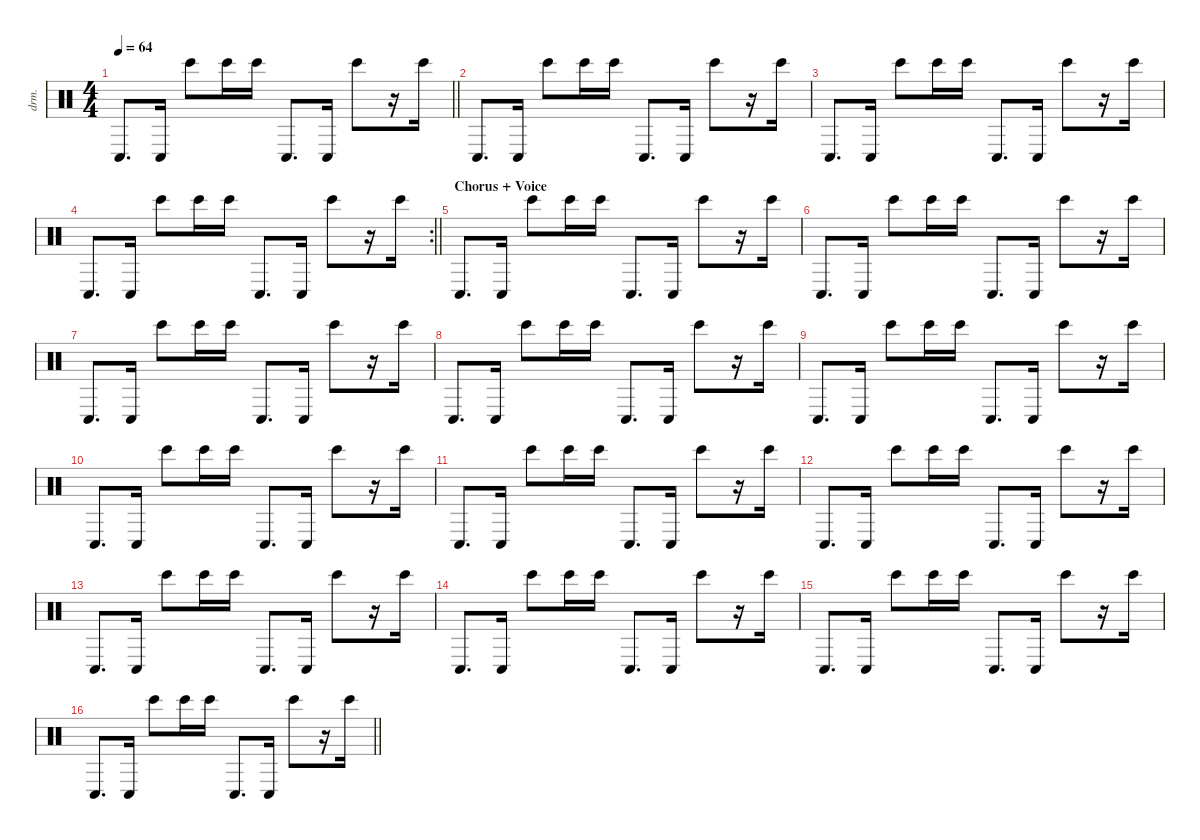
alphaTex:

\defaultSystemsLayout 4
\hideDynamics
\bracketExtendMode nobrackets
\track ("Percussions" "drm.") {instrument percussion}
\staff {score}
\articulation defaults
\ts (4 4)
\tempo 64
\clef neutral
\barLineRight lightlight
\ks c "Conga low (hit)".8{d dy f} "Conga low (hit)".16 "Bongo High (hit)".8 "Bongo High (hit)".16 "Bongo High (hit)".16 "Conga low (hit)".8{d} "Conga low (hit)".16 "Bongo High (hit)".8
r.16 "Bongo High (hit)".16 |
"Conga low (hit)".8{d} "Conga low (hit)".16 "Bongo High (hit)".8 "Bongo High (hit)".16 "Bongo High (hit)".16 "Conga low (hit)".8{d} "Conga low (hit)".16 "Bongo High (hit)".8 r.16 "Bongo High (hit)".16 |
"Conga low (hit)".8{d} "Conga low (hit)".16 "Bongo High (hit)".8 "Bongo High (hit)".16 "Bongo High (hit)".16 "Conga low (hit)".8{d} "Conga low (hit)".16 "Bongo High (hit)".8 r.16 "Bongo High (hit)".16 |
\rc 2
\barLineRight lightlight "Conga low (hit)".8{d} "Conga low (hit)".16 "Bongo High (hit)".8 "Bongo High (hit)".16 "Bongo High (hit)".16 "Conga low (hit)".8{d} "Conga low (hit)".16 "Bongo High (hit)".8
r.16 "Bongo High (hit)".16 |
\section ("" "Chorus + Voice")
"Conga low (hit)".8{d} "Conga low (hit)".16 "Bongo High (hit)".8 "Bongo High (hit)".16 "Bongo High (hit)".16 "Conga low (hit)".8{d} "Conga low (hit)".16 "Bongo High (hit)".8 r.16 "Bongo High (hit)".16 |
"Conga low (hit)".8{d} "Conga low (hit)".16 "Bongo High (hit)".8 "Bongo High (hit)".16 "Bongo High (hit)".16 "Conga low (hit)".8{d} "Conga low (hit)".16 "Bongo High (hit)".8 r.16 "Bongo High (hit)".16 |
"Conga low (hit)".8{d} "Conga low (hit)".16 "Bongo High (hit)".8 "Bongo High (hit)".16 "Bongo High (hit)".16 "Conga low (hit)".8{d} "Conga low (hit)".16 "Bongo High (hit)".8 r.16 "Bongo High (hit)".16 |
"Conga low (hit)".8{d} "Conga low (hit)".16 "Bongo High (hit)".8 "Bongo High (hit)".16 "Bongo High (hit)".16 "Conga low (hit)".8{d} "Conga low (hit)".16 "Bongo High (hit)".8 r.16 "Bongo High (hit)".16 |
"Conga low (hit)".8{d} "Conga low (hit)".16 "Bongo High (hit)".8 "Bongo High (hit)".16 "Bongo High (hit)".16 "Conga low (hit)".8{d} "Conga low (hit)".16 "Bongo High (hit)".8 r.16 "Bongo High (hit)".16 |
"Conga low (hit)".8{d} "Conga low (hit)".16 "Bongo High (hit)".8 "Bongo High (hit)".16 "Bongo High (hit)".16 "Conga low (hit)".8{d} "Conga low (hit)".16 "Bongo High (hit)".8 r.16 "Bongo High (hit)".16 |
"Conga low (hit)".8{d} "Conga low (hit)".16 "Bongo High (hit)".8 "Bongo High (hit)".16 "Bongo High (hit)".16 "Conga low (hit)".8{d} "Conga low (hit)".16 "Bongo High (hit)".8 r.16 "Bongo High (hit)".16 |
"Conga low (hit)".8{d} "Conga low (hit)".16 "Bongo High (hit)".8 "Bongo High (hit)".16 "Bongo High (hit)".16 "Conga low (hit)".8{d} "Conga low (hit)".16 "Bongo High (hit)".8 r.16 "Bongo High (hit)".16 |
"Conga low (hit)".8{d} "Conga low (hit)".16 "Bongo High (hit)".8 "Bongo High (hit)".16 "Bongo High (hit)".16 "Conga low (hit)".8{d} "Conga low (hit)".16 "Bongo High (hit)".8 r.16 "Bongo High (hit)".16 |
"Conga low (hit)".8{d} "Conga low (hit)".16 "Bongo High (hit)".8 "Bongo High (hit)".16 "Bongo High (hit)".16 "Conga low (hit)".8{d} "Conga low (hit)".16 "Bongo High (hit)".8 r.16 "Bongo High (hit)".16 |
"Conga low (hit)".8{d} "Conga low (hit)".16 "Bongo High (hit)".8 "Bongo High (hit)".16 "Bongo High (hit)".16 "Conga low (hit)".8{d} "Conga low (hit)".16 "Bongo High (hit)".8 r.16 "Bongo High (hit)".16 |
\barLineRight lightlight "Conga low (hit)".8{d} "Conga low (hit)".16 "Bongo High (hit)".8 "Bongo High (hit)".16 "Bongo High (hit)".16 "Conga low (hit)".8{d} "Conga low (hit)".16 "Bongo High (hit)".8
r.16 "Bongo High (hit)".16
